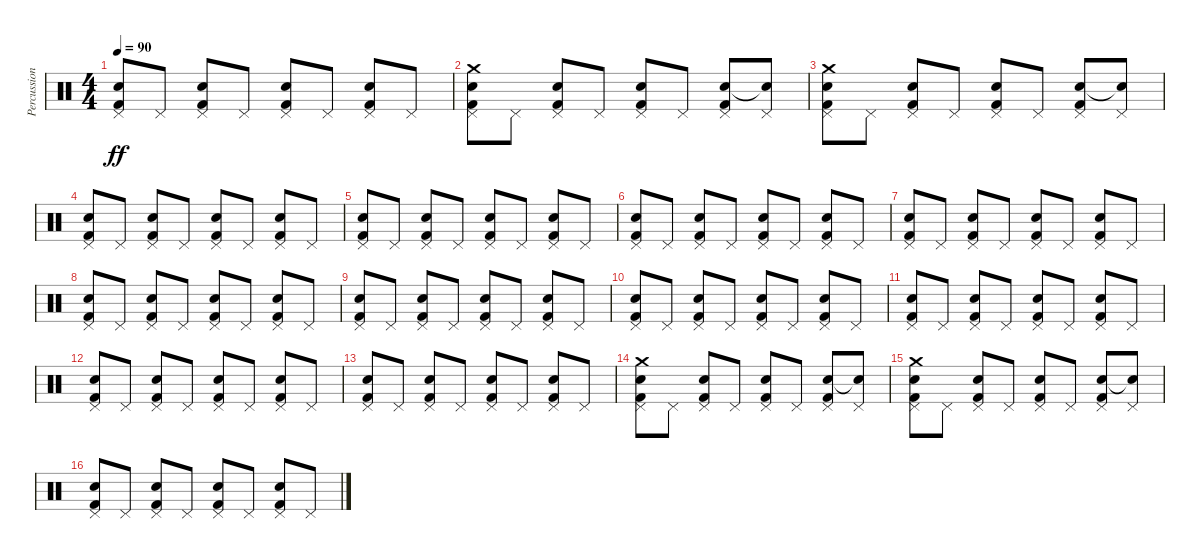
\track ("Percussions" "Percussion") {instrument percussion}
\staff {score}
\articulation defaults
\ts (4 4)
\tempo 90
\clef neutral
\ks c
("Pedal Hi-Hat (hit)" "Electric Snare (hit)" "Kick (hit) 2").8{dy ff} "Pedal Hi-Hat (hit)".8 ("Pedal Hi-Hat (hit)" "Electric Snare (hit)" "Kick (hit) 2").8 "Pedal Hi-Hat (hit)".8 ("Pedal Hi-Hat (hit)" "Electric Snare (hit)" "Kick (hit) 2").8 "Pedal Hi-Hat (hit)".8 ("Pedal Hi-Hat (hit)" "Electric Snare (hit)" "Kick (hit) 2").8 "Pedal Hi-Hat (hit)".8 |
("Pedal Hi-Hat (hit)" "Crash medium (hit)" "Electric Snare (hit)" "Kick (hit) 2").8 "Pedal Hi-Hat (hit)".8 ("Pedal Hi-Hat (hit)" "Electric Snare (hit)" "Kick (hit) 2").8 "Pedal Hi-Hat (hit)".8 ("Pedal Hi-Hat (hit)" "Electric Snare (hit)" "Kick (hit) 2").8 "Pedal Hi-Hat (hit)".8 ("Pedal Hi-Hat (hit)" "Electric Snare (hit)" "Kick (hit) 2").8 ("Pedal Hi-Hat (hit)" "Snare (hit)"{t}).8 |
("Pedal Hi-Hat (hit)" "Crash medium (hit)" "Electric Snare (hit)" "Kick (hit) 2").8 "Pedal Hi-Hat (hit)".8 ("Pedal Hi-Hat (hit)" "Electric Snare (hit)" "Kick (hit) 2").8 "Pedal Hi-Hat (hit)".8 ("Pedal Hi-Hat (hit)" "Electric Snare (hit)" "Kick (hit) 2").8 "Pedal Hi-Hat (hit)".8 ("Pedal Hi-Hat (hit)" "Electric Snare (hit)" "Kick (hit) 2").8 ("Pedal Hi-Hat (hit)" "Snare (hit)"{t}).8 |
("Pedal Hi-Hat (hit)" "Electric Snare (hit)" "Kick (hit) 2").8 "Pedal Hi-Hat (hit)".8 ("Pedal Hi-Hat (hit)" "Electric Snare (hit)" "Kick (hit) 2").8 "Pedal Hi-Hat (hit)".8 ("Pedal Hi-Hat (hit)" "Electric Snare (hit)" "Kick (hit) 2").8 "Pedal Hi-Hat (hit)".8 ("Pedal Hi-Hat (hit)" "Electric Snare (hit)" "Kick (hit) 2").8 "Pedal Hi-Hat (hit)".8 |
("Pedal Hi-Hat (hit)" "Electric Snare (hit)" "Kick (hit) 2").8 "Pedal Hi-Hat (hit)".8 ("Pedal Hi-Hat (hit)" "Electric Snare (hit)" "Kick (hit) 2").8 "Pedal Hi-Hat (hit)".8 ("Pedal Hi-Hat (hit)" "Electric Snare (hit)" "Kick (hit) 2").8 "Pedal Hi-Hat (hit)".8 ("Pedal Hi-Hat (hit)" "Electric Snare (hit)" "Kick (hit) 2").8 "Pedal Hi-Hat (hit)".8 |
("Pedal Hi-Hat (hit)" "Electric Snare (hit)" "Kick (hit) 2").8 "Pedal Hi-Hat (hit)".8 ("Pedal Hi-Hat (hit)" "Electric Snare (hit)" "Kick (hit) 2").8 "Pedal Hi-Hat (hit)".8 ("Pedal Hi-Hat (hit)" "Electric Snare (hit)" "Kick (hit) 2").8 "Pedal Hi-Hat (hit)".8 ("Pedal Hi-Hat (hit)" "Electric Snare (hit)" "Kick (hit) 2").8 "Pedal Hi-Hat (hit)".8 |
("Pedal Hi-Hat (hit)" "Electric Snare (hit)" "Kick (hit) 2").8 "Pedal Hi-Hat (hit)".8 ("Pedal Hi-Hat (hit)" "Electric Snare (hit)" "Kick (hit) 2").8 "Pedal Hi-Hat (hit)".8 ("Pedal Hi-Hat (hit)" "Electric Snare (hit)" "Kick (hit) 2").8 "Pedal Hi-Hat (hit)".8 ("Pedal Hi-Hat (hit)" "Electric Snare (hit)" "Kick (hit) 2").8 "Pedal Hi-Hat (hit)".8 |
("Pedal Hi-Hat (hit)" "Electric Snare (hit)" "Kick (hit) 2").8 "Pedal Hi-Hat (hit)".8 ("Pedal Hi-Hat (hit)" "Electric Snare (hit)" "Kick (hit) 2").8 "Pedal Hi-Hat (hit)".8 ("Pedal Hi-Hat (hit)" "Electric Snare (hit)" "Kick (hit) 2").8 "Pedal Hi-Hat (hit)".8 ("Pedal Hi-Hat (hit)" "Electric Snare (hit)" "Kick (hit) 2").8 "Pedal Hi-Hat (hit)".8 |
("Pedal Hi-Hat (hit)" "Electric Snare (hit)" "Kick (hit) 2").8 "Pedal Hi-Hat (hit)".8 ("Pedal Hi-Hat (hit)" "Electric Snare (hit)" "Kick (hit) 2").8 "Pedal Hi-Hat (hit)".8 ("Pedal Hi-Hat (hit)" "Electric Snare (hit)" "Kick (hit) 2").8 "Pedal Hi-Hat (hit)".8 ("Pedal Hi-Hat (hit)" "Electric Snare (hit)" "Kick (hit) 2").8 "Pedal Hi-Hat (hit)".8 |
("Pedal Hi-Hat (hit)" "Electric Snare (hit)" "Kick (hit) 2").8 "Pedal Hi-Hat (hit)".8 ("Pedal Hi-Hat (hit)" "Electric Snare (hit)" "Kick (hit) 2").8 "Pedal Hi-Hat (hit)".8 ("Pedal Hi-Hat (hit)" "Electric Snare (hit)" "Kick (hit) 2").8 "Pedal Hi-Hat (hit)".8 ("Pedal Hi-Hat (hit)" "Electric Snare (hit)" "Kick (hit) 2").8 "Pedal Hi-Hat (hit)".8 |
("Pedal Hi-Hat (hit)" "Electric Snare (hit)" "Kick (hit) 2").8 "Pedal Hi-Hat (hit)".8 ("Pedal Hi-Hat (hit)" "Electric Snare (hit)" "Kick (hit) 2").8 "Pedal Hi-Hat (hit)".8 ("Pedal Hi-Hat (hit)" "Electric Snare (hit)" "Kick (hit) 2").8 "Pedal Hi-Hat (hit)".8 ("Pedal Hi-Hat (hit)" "Electric Snare (hit)" "Kick (hit) 2").8 "Pedal Hi-Hat (hit)".8 |
("Pedal Hi-Hat (hit)" "Electric Snare (hit)" "Kick (hit) 2").8 "Pedal Hi-Hat (hit)".8 ("Pedal Hi-Hat (hit)" "Electric Snare (hit)" "Kick (hit) 2").8 "Pedal Hi-Hat (hit)".8 ("Pedal Hi-Hat (hit)" "Electric Snare (hit)" "Kick (hit) 2").8 "Pedal Hi-Hat (hit)".8 ("Pedal Hi-Hat (hit)" "Electric Snare (hit)" "Kick (hit) 2").8 "Pedal Hi-Hat (hit)".8 |
("Pedal Hi-Hat (hit)" "Electric Snare (hit)" "Kick (hit) 2").8 "Pedal Hi-Hat (hit)".8 ("Pedal Hi-Hat (hit)" "Electric Snare (hit)" "Kick (hit) 2").8 "Pedal Hi-Hat (hit)".8 ("Pedal Hi-Hat (hit)" "Electric Snare (hit)" "Kick (hit) 2").8 "Pedal Hi-Hat (hit)".8 ("Pedal Hi-Hat (hit)" "Electric Snare (hit)" "Kick (hit) 2").8 "Pedal Hi-Hat (hit)".8 |
("Pedal Hi-Hat (hit)" "Crash medium (hit)" "Electric Snare (hit)" "Kick (hit) 2").8 "Pedal Hi-Hat (hit)".8 ("Pedal Hi-Hat (hit)" "Electric Snare (hit)" "Kick (hit) 2").8 "Pedal Hi-Hat (hit)".8 ("Pedal Hi-Hat (hit)" "Electric Snare (hit)" "Kick (hit) 2").8 "Pedal Hi-Hat (hit)".8 ("Pedal Hi-Hat (hit)" "Electric Snare (hit)" "Kick (hit) 2").8 ("Pedal Hi-Hat (hit)" "Snare (hit)"{t}).8 |
("Pedal Hi-Hat (hit)" "Crash medium (hit)" "Electric Snare (hit)" "Kick (hit) 2").8 "Pedal Hi-Hat (hit)".8 ("Pedal Hi-Hat (hit)" "Electric Snare (hit)" "Kick (hit) 2").8 "Pedal Hi-Hat (hit)".8 ("Pedal Hi-Hat (hit)" "Electric Snare (hit)" "Kick (hit) 2").8 "Pedal Hi-Hat (hit)".8 ("Pedal Hi-Hat (hit)" "Electric Snare (hit)" "Kick (hit) 2").8 ("Pedal Hi-Hat (hit)" "Snare (hit)"{t}).8 |
("Pedal Hi-Hat (hit)" "Electric Snare (hit)" "Kick (hit) 2").8 "Pedal Hi-Hat (hit)".8 ("Pedal Hi-Hat (hit)" "Electric Snare (hit)" "Kick (hit) 2").8 "Pedal Hi-Hat (hit)".8 ("Pedal Hi-Hat (hit)" "Electric Snare (hit)" "Kick (hit) 2").8 "Pedal Hi-Hat (hit)".8 ("Pedal Hi-Hat (hit)" "Electric Snare (hit)" "Kick (hit) 2").8 "Pedal Hi-Hat (hit)".8
